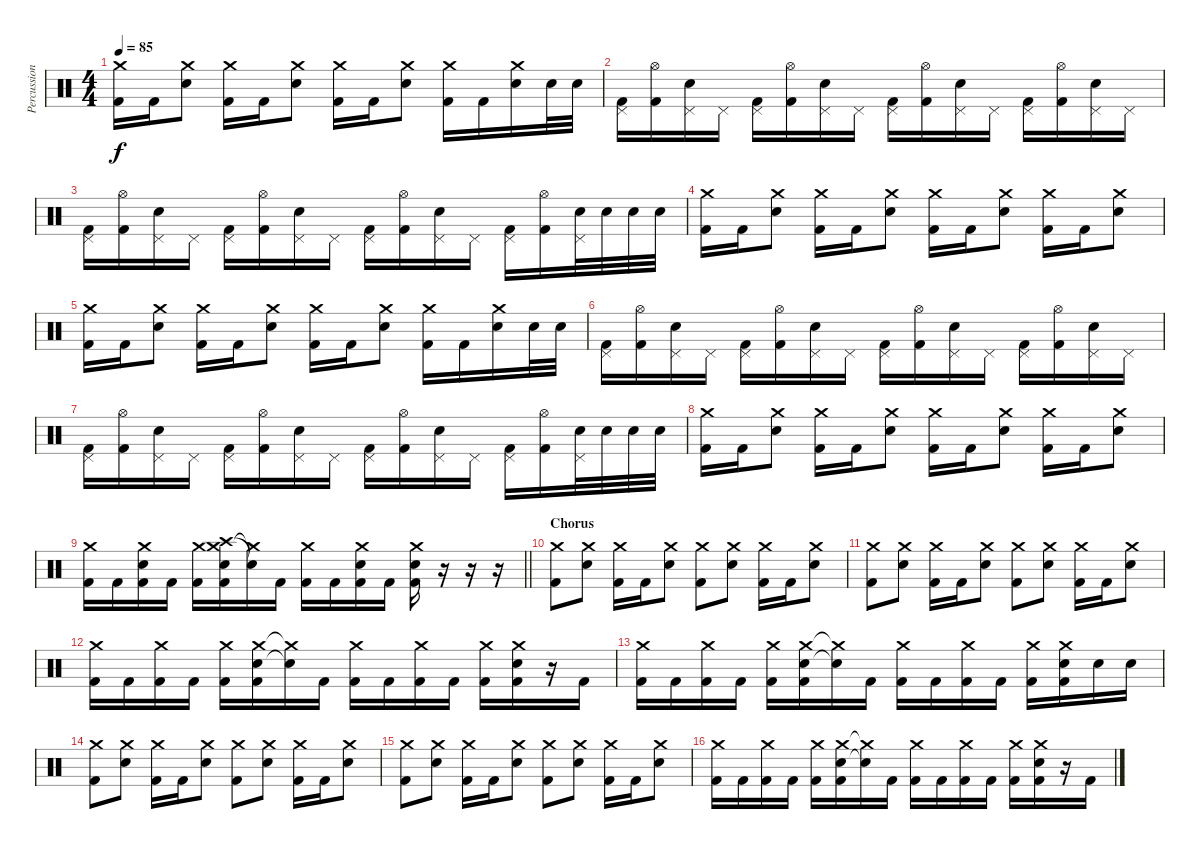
\track ("Percussion" "Percussion") {instrument percussion}
\staff {score}
\articulation defaults
\ts (4 4)
\tempo 85
\clef neutral
\ks c
("Crash medium (hit)" "Kick (hit) 2").16{dy f} "Kick (hit) 2".16 ("Crash medium (hit)" "Electric Snare (hit)").8 ("Crash medium (hit)" "Kick (hit) 2").16 "Kick (hit) 2".16 ("Crash medium (hit)" "Electric Snare (hit)").8 ("Crash medium (hit)" "Kick (hit) 2").16 "Kick (hit) 2".16 ("Crash medium (hit)" "Electric Snare (hit)").8 ("Crash medium (hit)" "Kick (hit) 2").16 "Kick (hit) 2".16 ("Crash medium (hit)" "Electric Snare (hit)").16 "Electric Snare (hit)".32 "Electric Snare (hit)".32 |
("Pedal Hi-Hat (hit)" "Kick (hit) 2").16 ("Hi-Hat (open)" "Kick (hit) 2").16 ("Pedal Hi-Hat (hit)" "Electric Snare (hit)").16 "Pedal Hi-Hat (hit)".16 ("Pedal Hi-Hat (hit)" "Kick (hit) 2").16 ("Hi-Hat (open)" "Kick (hit) 2").16 ("Pedal Hi-Hat (hit)" "Electric Snare (hit)").16 "Pedal Hi-Hat (hit)".16 ("Pedal Hi-Hat (hit)" "Kick (hit) 2").16 ("Hi-Hat (open)" "Kick (hit) 2").16 ("Pedal Hi-Hat (hit)" "Electric Snare (hit)").16 "Pedal Hi-Hat (hit)".16 ("Pedal Hi-Hat (hit)" "Kick (hit) 2").16 ("Hi-Hat (open)" "Kick (hit) 2").16 ("Pedal Hi-Hat (hit)" "Electric Snare (hit)").16 "Pedal Hi-Hat (hit)".16 |
("Pedal Hi-Hat (hit)" "Kick (hit) 2").16 ("Hi-Hat (open)" "Kick (hit) 2").16 ("Pedal Hi-Hat (hit)" "Electric Snare (hit)").16 "Pedal Hi-Hat (hit)".16 ("Pedal Hi-Hat (hit)" "Kick (hit) 2").16 ("Hi-Hat (open)" "Kick (hit) 2").16 ("Pedal Hi-Hat (hit)" "Electric Snare (hit)").16 "Pedal Hi-Hat (hit)".16 ("Pedal Hi-Hat (hit)" "Kick (hit) 2").16 ("Hi-Hat (open)" "Kick (hit) 2").16 ("Pedal Hi-Hat (hit)" "Electric Snare (hit)").16 "Pedal Hi-Hat (hit)".16 ("Pedal Hi-Hat (hit)" "Kick (hit) 2").16 ("Hi-Hat (open)" "Kick (hit) 2").16 ("Pedal Hi-Hat (hit)" "Electric Snare (hit)").32 "Electric Snare (hit)".32 "Electric Snare (hit)".32 "Electric Snare (hit)".32 |
("Crash medium (hit)" "Kick (hit) 2").16 "Kick (hit) 2".16 ("Crash medium (hit)" "Electric Snare (hit)").8 ("Crash medium (hit)" "Kick (hit) 2").16 "Kick (hit) 2".16 ("Crash medium (hit)" "Electric Snare (hit)").8 ("Crash medium (hit)" "Kick (hit) 2").16 "Kick (hit) 2".16 ("Crash medium (hit)" "Electric Snare (hit)").8 ("Crash medium (hit)" "Kick (hit) 2").16 "Kick (hit) 2".16 ("Crash medium (hit)" "Electric Snare (hit)").8 |
("Crash medium (hit)" "Kick (hit) 2").16 "Kick (hit) 2".16 ("Crash medium (hit)" "Electric Snare (hit)").8 ("Crash medium (hit)" "Kick (hit) 2").16 "Kick (hit) 2".16 ("Crash medium (hit)" "Electric Snare (hit)").8 ("Crash medium (hit)" "Kick (hit) 2").16 "Kick (hit) 2".16 ("Crash medium (hit)" "Electric Snare (hit)").8 ("Crash medium (hit)" "Kick (hit) 2").16 "Kick (hit) 2".16 ("Crash medium (hit)" "Electric Snare (hit)").16 "Electric Snare (hit)".32 "Electric Snare (hit)".32 |
("Pedal Hi-Hat (hit)" "Kick (hit) 2").16 ("Hi-Hat (open)" "Kick (hit) 2").16 ("Pedal Hi-Hat (hit)" "Electric Snare (hit)").16 "Pedal Hi-Hat (hit)".16 ("Pedal Hi-Hat (hit)" "Kick (hit) 2").16 ("Hi-Hat (open)" "Kick (hit) 2").16 ("Pedal Hi-Hat (hit)" "Electric Snare (hit)").16 "Pedal Hi-Hat (hit)".16 ("Pedal Hi-Hat (hit)" "Kick (hit) 2").16 ("Hi-Hat (open)" "Kick (hit) 2").16 ("Pedal Hi-Hat (hit)" "Electric Snare (hit)").16 "Pedal Hi-Hat (hit)".16 ("Pedal Hi-Hat (hit)" "Kick (hit) 2").16 ("Hi-Hat (open)" "Kick (hit) 2").16 ("Pedal Hi-Hat (hit)" "Electric Snare (hit)").16 "Pedal Hi-Hat (hit)".16 |
("Pedal Hi-Hat (hit)" "Kick (hit) 2").16 ("Hi-Hat (open)" "Kick (hit) 2").16 ("Pedal Hi-Hat (hit)" "Electric Snare (hit)").16 "Pedal Hi-Hat (hit)".16 ("Pedal Hi-Hat (hit)" "Kick (hit) 2").16 ("Hi-Hat (open)" "Kick (hit) 2").16 ("Pedal Hi-Hat (hit)" "Electric Snare (hit)").16 "Pedal Hi-Hat (hit)".16 ("Pedal Hi-Hat (hit)" "Kick (hit) 2").16 ("Hi-Hat (open)" "Kick (hit) 2").16 ("Pedal Hi-Hat (hit)" "Electric Snare (hit)").16 "Pedal Hi-Hat (hit)".16 ("Pedal Hi-Hat (hit)" "Kick (hit) 2").16 ("Hi-Hat (open)" "Kick (hit) 2").16 ("Pedal Hi-Hat (hit)" "Electric Snare (hit)").32 "Electric Snare (hit)".32 "Electric Snare (hit)".32 "Electric Snare (hit)".32 |
("Crash medium (hit)" "Kick (hit) 2").16 "Kick (hit) 2".16 ("Crash medium (hit)" "Electric Snare (hit)").8 ("Crash medium (hit)" "Kick (hit) 2").16 "Kick (hit) 2".16 ("Crash medium (hit)" "Electric Snare (hit)").8 ("Crash medium (hit)" "Kick (hit) 2").16 "Kick (hit) 2".16 ("Crash medium (hit)" "Electric Snare (hit)").8 ("Crash medium (hit)" "Kick (hit) 2").16 "Kick (hit) 2".16 ("Crash medium (hit)" "Electric Snare (hit)").8 |
\barLineRight lightlight
("Crash medium (hit)" "Kick (hit) 2").16 "Kick (hit) 2".16 ("Crash medium (hit)" "Electric Snare (hit)" "Kick (hit) 2").16 "Kick (hit) 2".16 ("Crash medium (hit)" "Kick (hit) 2").16 ("Crash medium (hit)" "Crash high (hit)" "Electric Snare (hit)" "Kick (hit) 2").16 ("Crash medium (hit)"{t} "Electric Snare (hit)"{t}).16 "Kick (hit) 2".16 ("Crash medium (hit)" "Kick (hit) 2").16 "Kick (hit) 2".16 ("Crash medium (hit)" "Electric Snare (hit)" "Kick (hit) 2").16 "Kick (hit) 2".16 ("Crash medium (hit)" "Electric Snare (hit)" "Kick (hit) 2").16 r.16 r.16 r.16 |
\section ("" "Chorus")
("Crash medium (hit)" "Kick (hit) 2").8 ("Crash medium (hit)" "Electric Snare (hit)").8 ("Crash medium (hit)" "Kick (hit) 2").16 "Kick (hit) 2".16 ("Crash medium (hit)" "Electric Snare (hit)").8 ("Crash medium (hit)" "Kick (hit) 2").8 ("Crash medium (hit)" "Electric Snare (hit)").8 ("Crash medium (hit)" "Kick (hit) 2").16 "Kick (hit) 2".16 ("Crash medium (hit)" "Electric Snare (hit)").8 |
("Crash medium (hit)" "Kick (hit) 2").8 ("Crash medium (hit)" "Electric Snare (hit)").8 ("Crash medium (hit)" "Kick (hit) 2").16 "Kick (hit) 2".16 ("Crash medium (hit)" "Electric Snare (hit)").8 ("Crash medium (hit)" "Kick (hit) 2").8 ("Crash medium (hit)" "Electric Snare (hit)").8 ("Crash medium (hit)" "Kick (hit) 2").16 "Kick (hit) 2".16 ("Crash medium (hit)" "Electric Snare (hit)").8 |
("Crash medium (hit)" "Kick (hit) 2").16 "Kick (hit) 2".16 ("Crash medium (hit)" "Kick (hit) 2").16 "Kick (hit) 2".16 ("Crash medium (hit)" "Kick (hit) 2").16 ("Crash medium (hit)" "Electric Snare (hit)" "Kick (hit) 2").16 ("Crash medium (hit)"{t} "Electric Snare (hit)"{t}).16 "Kick (hit) 2".16 ("Crash medium (hit)" "Kick (hit) 2").16 "Kick (hit) 2".16 ("Crash medium (hit)" "Kick (hit) 2").16 "Kick (hit) 2".16 ("Crash medium (hit)" "Kick (hit) 2").16 ("Crash medium (hit)" "Electric Snare (hit)" "Kick (hit) 2").16 r.16 "Kick (hit) 2".16 |
("Crash medium (hit)" "Kick (hit) 2").16 "Kick (hit) 2".16 ("Crash medium (hit)" "Kick (hit) 2").16 "Kick (hit) 2".16 ("Crash medium (hit)" "Kick (hit) 2").16 ("Crash medium (hit)" "Electric Snare (hit)" "Kick (hit) 2").16 ("Crash medium (hit)"{t} "Electric Snare (hit)"{t}).16 "Kick (hit) 2".16 ("Crash medium (hit)" "Kick (hit) 2").16 "Kick (hit) 2".16 ("Crash medium (hit)" "Kick (hit) 2").16 "Kick (hit) 2".16 ("Crash medium (hit)" "Kick (hit) 2").16 ("Crash medium (hit)" "Electric Snare (hit)" "Kick (hit) 2").16 "Electric Snare (hit)".16 "Electric Snare (hit)".16 |
("Crash medium (hit)" "Kick (hit) 2").8 ("Crash medium (hit)" "Electric Snare (hit)").8 ("Crash medium (hit)" "Kick (hit) 2").16 "Kick (hit) 2".16 ("Crash medium (hit)" "Electric Snare (hit)").8 ("Crash medium (hit)" "Kick (hit) 2").8 ("Crash medium (hit)" "Electric Snare (hit)").8 ("Crash medium (hit)" "Kick (hit) 2").16 "Kick (hit) 2".16 ("Crash medium (hit)" "Electric Snare (hit)").8 |
("Crash medium (hit)" "Kick (hit) 2").8 ("Crash medium (hit)" "Electric Snare (hit)").8 ("Crash medium (hit)" "Kick (hit) 2").16 "Kick (hit) 2".16 ("Crash medium (hit)" "Electric Snare (hit)").8 ("Crash medium (hit)" "Kick (hit) 2").8 ("Crash medium (hit)" "Electric Snare (hit)").8 ("Crash medium (hit)" "Kick (hit) 2").16 "Kick (hit) 2".16 ("Crash medium (hit)" "Electric Snare (hit)").8 |
("Crash medium (hit)" "Kick (hit) 2").16 "Kick (hit) 2".16 ("Crash medium (hit)" "Kick (hit) 2").16 "Kick (hit) 2".16 ("Crash medium (hit)" "Kick (hit) 2").16 ("Crash medium (hit)" "Electric Snare (hit)" "Kick (hit) 2").16 ("Crash medium (hit)"{t} "Electric Snare (hit)"{t}).16 "Kick (hit) 2".16 ("Crash medium (hit)" "Kick (hit) 2").16 "Kick (hit) 2".16 ("Crash medium (hit)" "Kick (hit) 2").16 "Kick (hit) 2".16 ("Crash medium (hit)" "Kick (hit) 2").16 ("Crash medium (hit)" "Electric Snare (hit)" "Kick (hit) 2").16 r.16 "Kick (hit) 2".16
